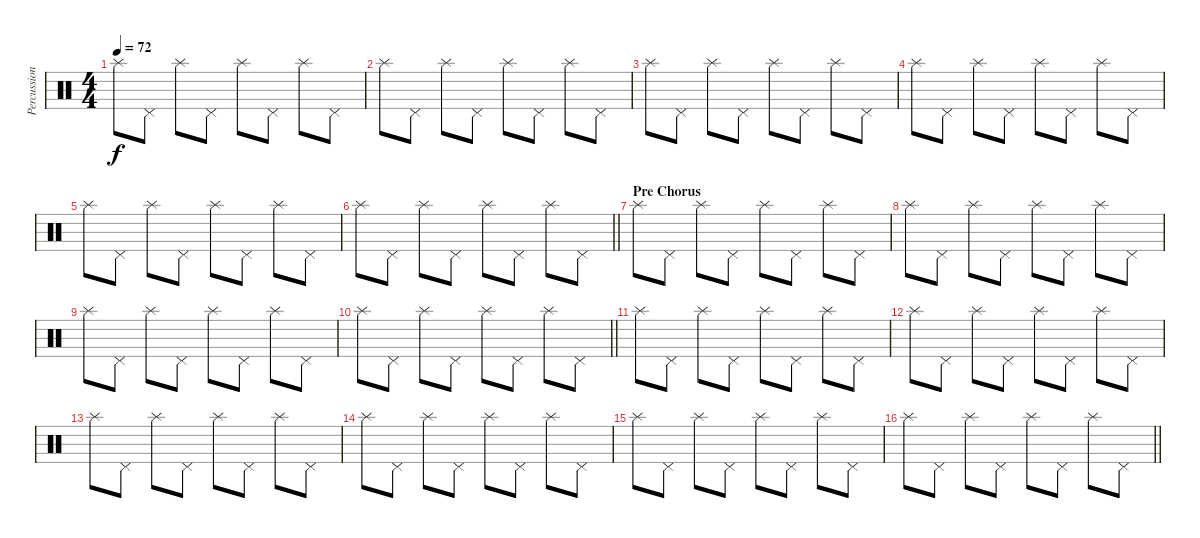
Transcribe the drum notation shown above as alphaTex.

\track ("Percussion" "Percussion") {instrument percussion}
\staff {score}
\articulation defaults
\ts (4 4)
\tempo 72
\clef neutral
\ks c "Splash (hit)".8{dy f} "Pedal Hi-Hat (hit)".8 "Splash (hit)".8 "Pedal Hi-Hat (hit)".8 "Splash (hit)".8 "Pedal Hi-Hat (hit)".8 "Splash (hit)".8 "Pedal Hi-Hat (hit)".8
|
"Splash (hit)".8 "Pedal Hi-Hat (hit)".8 "Splash (hit)".8 "Pedal Hi-Hat (hit)".8 "Splash (hit)".8 "Pedal Hi-Hat (hit)".8 "Splash (hit)".8 "Pedal Hi-Hat (hit)".8 |
"Splash (hit)".8 "Pedal Hi-Hat (hit)".8 "Splash (hit)".8 "Pedal Hi-Hat (hit)".8 "Splash (hit)".8 "Pedal Hi-Hat (hit)".8 "Splash (hit)".8 "Pedal Hi-Hat (hit)".8 |
"Splash (hit)".8 "Pedal Hi-Hat (hit)".8 "Splash (hit)".8 "Pedal Hi-Hat (hit)".8 "Splash (hit)".8 "Pedal Hi-Hat (hit)".8 "Splash (hit)".8 "Pedal Hi-Hat (hit)".8 |
"Splash (hit)".8 "Pedal Hi-Hat (hit)".8 "Splash (hit)".8 "Pedal Hi-Hat (hit)".8 "Splash (hit)".8 "Pedal Hi-Hat (hit)".8 "Splash (hit)".8 "Pedal Hi-Hat (hit)".8 |
\barLineRight lightlight "Splash (hit)".8 "Pedal Hi-Hat (hit)".8 "Splash (hit)".8 "Pedal Hi-Hat (hit)".8 "Splash (hit)".8 "Pedal Hi-Hat (hit)".8 "Splash (hit)".8 "Pedal Hi-Hat (hit)".8
|
\section ("" "Pre Chorus")
"Splash (hit)".8 "Pedal Hi-Hat (hit)".8 "Splash (hit)".8 "Pedal Hi-Hat (hit)".8 "Splash (hit)".8 "Pedal Hi-Hat (hit)".8 "Splash (hit)".8 "Pedal Hi-Hat (hit)".8 |
"Splash (hit)".8 "Pedal Hi-Hat (hit)".8 "Splash (hit)".8 "Pedal Hi-Hat (hit)".8 "Splash (hit)".8 "Pedal Hi-Hat (hit)".8 "Splash (hit)".8 "Pedal Hi-Hat (hit)".8 |
"Splash (hit)".8 "Pedal Hi-Hat (hit)".8 "Splash (hit)".8 "Pedal Hi-Hat (hit)".8 "Splash (hit)".8 "Pedal Hi-Hat (hit)".8 "Splash (hit)".8 "Pedal Hi-Hat (hit)".8 |
\barLineRight lightlight "Splash (hit)".8 "Pedal Hi-Hat (hit)".8 "Splash (hit)".8 "Pedal Hi-Hat (hit)".8 "Splash (hit)".8 "Pedal Hi-Hat (hit)".8 "Splash (hit)".8 "Pedal Hi-Hat (hit)".8
|
"Splash (hit)".8 "Pedal Hi-Hat (hit)".8 "Splash (hit)".8 "Pedal Hi-Hat (hit)".8 "Splash (hit)".8 "Pedal Hi-Hat (hit)".8 "Splash (hit)".8 "Pedal Hi-Hat (hit)".8 |
"Splash (hit)".8 "Pedal Hi-Hat (hit)".8 "Splash (hit)".8 "Pedal Hi-Hat (hit)".8 "Splash (hit)".8 "Pedal Hi-Hat (hit)".8 "Splash (hit)".8 "Pedal Hi-Hat (hit)".8 |
"Splash (hit)".8 "Pedal Hi-Hat (hit)".8 "Splash (hit)".8 "Pedal Hi-Hat (hit)".8 "Splash (hit)".8 "Pedal Hi-Hat (hit)".8 "Splash (hit)".8 "Pedal Hi-Hat (hit)".8 |
"Splash (hit)".8 "Pedal Hi-Hat (hit)".8 "Splash (hit)".8 "Pedal Hi-Hat (hit)".8 "Splash (hit)".8 "Pedal Hi-Hat (hit)".8 "Splash (hit)".8 "Pedal Hi-Hat (hit)".8 |
"Splash (hit)".8 "Pedal Hi-Hat (hit)".8 "Splash (hit)".8 "Pedal Hi-Hat (hit)".8 "Splash (hit)".8 "Pedal Hi-Hat (hit)".8 "Splash (hit)".8 "Pedal Hi-Hat (hit)".8 |
\barLineRight lightlight "Splash (hit)".8 "Pedal Hi-Hat (hit)".8 "Splash (hit)".8 "Pedal Hi-Hat (hit)".8 "Splash (hit)".8 "Pedal Hi-Hat (hit)".8 "Splash (hit)".8 "Pedal Hi-Hat (hit)".8
